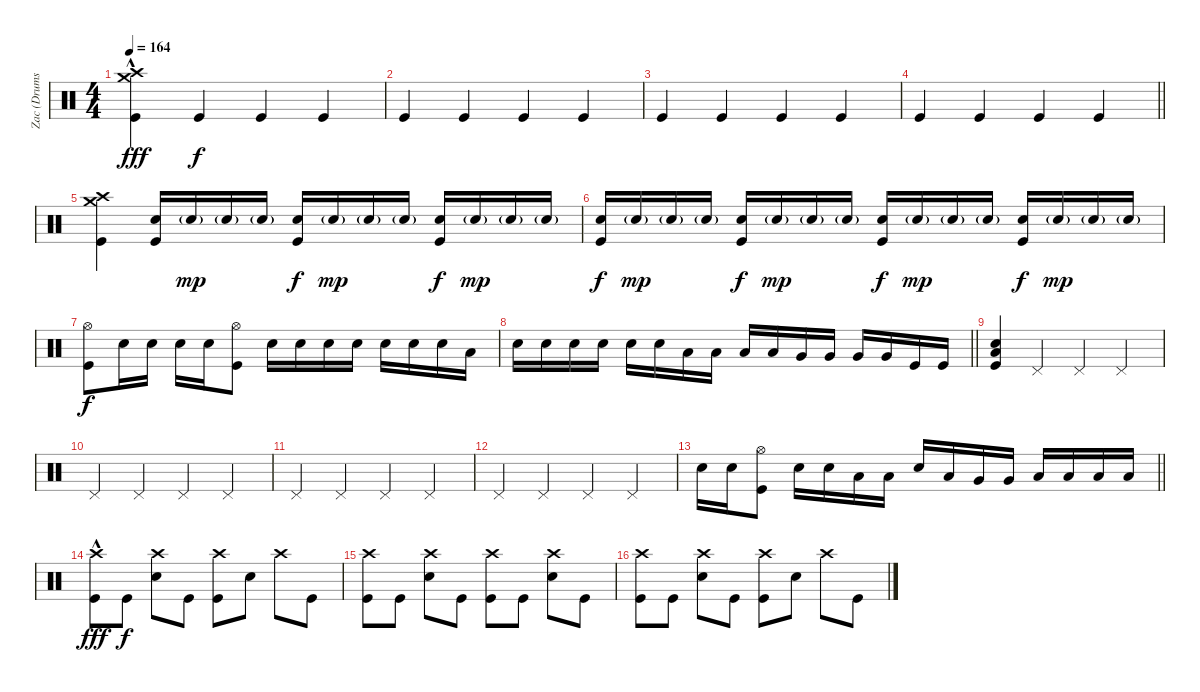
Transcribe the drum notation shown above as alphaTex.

\track ("Zac (Drums)" "Zac (Drums") {instrument percussion}
\staff {score}
\articulation defaults
\ts (4 4)
\tempo 164
\clef neutral
\ks c
("Crash high (hit)"{hac} "Crash medium (hit)" "Kick (hit)").4{dy fff} "Kick (hit)".4{dy f} "Kick (hit)".4 "Kick (hit)".4 |
"Kick (hit)".4 "Kick (hit)".4 "Kick (hit)".4 "Kick (hit)".4 |
"Kick (hit)".4 "Kick (hit)".4 "Kick (hit)".4 "Kick (hit)".4 |
\barLineRight lightlight "Kick (hit)".4 "Kick (hit)".4 "Kick (hit)".4 "Kick (hit)".4
|
("Crash high (hit)" "Crash medium (hit)" "Kick (hit)").4 ("Electric Snare (hit)" "Kick (hit)").16 "Electric Snare (hit)"{g}.16{dy mp} "Electric Snare (hit)"{g}.16 "Electric Snare (hit)"{g}.16 ("Electric Snare (hit)" "Kick (hit)").16{dy f} "Electric Snare (hit)"{g}.16{dy mp} "Electric Snare (hit)"{g}.16 "Electric Snare (hit)"{g}.16 ("Electric Snare (hit)" "Kick (hit)").16{dy f} "Electric Snare (hit)"{g}.16{dy mp} "Electric Snare (hit)"{g}.16 "Electric Snare (hit)"{g}.16 |
("Electric Snare (hit)" "Kick (hit)").16{dy f} "Electric Snare (hit)"{g}.16{dy mp} "Electric Snare (hit)"{g}.16 "Electric Snare (hit)"{g}.16 ("Electric Snare (hit)" "Kick (hit)").16{dy f} "Electric Snare (hit)"{g}.16{dy mp} "Electric Snare (hit)"{g}.16 "Electric Snare (hit)"{g}.16 ("Electric Snare (hit)" "Kick (hit)").16{dy f} "Electric Snare (hit)"{g}.16{dy mp} "Electric Snare (hit)"{g}.16 "Electric Snare (hit)"{g}.16 ("Electric Snare (hit)" "Kick (hit)").16{dy f} "Electric Snare (hit)"{g}.16{dy mp} "Electric Snare (hit)"{g}.16 "Electric Snare (hit)"{g}.16 |
("Hi-Hat (open)" "Kick (hit)").8{dy f} "Electric Snare (hit)".16 "Electric Snare (hit)".16 "Electric Snare (hit)".16 "Electric Snare (hit)".16 ("Hi-Hat (open)" "Kick (hit)").8 "Electric Snare (hit)".16 "Electric Snare (hit)".16 "Electric Snare (hit)".16 "Electric Snare (hit)".16 "Electric Snare (hit)".16 "Electric Snare (hit)".16 "Electric Snare (hit)".16 "Low Tom (hit)".16 |
\barLineRight lightlight "Electric Snare (hit)".16 "Electric Snare (hit)".16 "Electric Snare (hit)".16 "Electric Snare (hit)".16 "Electric Snare (hit)".16 "Electric Snare (hit)".16 "Low Tom (hit)".16 "Low Tom (hit)".16 "Low Tom (hit)".16 "Low Tom (hit)".16 "Very Low Tom (hit)".16 "Very Low Tom (hit)".16 "Very Low Tom (hit)".16 "Very Low Tom (hit)".16 "Kick (hit)".16 "Kick (hit)".16
|
("Electric Snare (hit)" "Low Floor Tom (hit)" "Kick (hit)").4 "Pedal Hi-Hat (hit)".4 "Pedal Hi-Hat (hit)".4 "Pedal Hi-Hat (hit)".4 |
"Pedal Hi-Hat (hit)".4 "Pedal Hi-Hat (hit)".4 "Pedal Hi-Hat (hit)".4 "Pedal Hi-Hat (hit)".4 |
"Pedal Hi-Hat (hit)".4 "Pedal Hi-Hat (hit)".4 "Pedal Hi-Hat (hit)".4 "Pedal Hi-Hat (hit)".4 |
"Pedal Hi-Hat (hit)".4 "Pedal Hi-Hat (hit)".4 "Pedal Hi-Hat (hit)".4 "Pedal Hi-Hat (hit)".4 |
\barLineRight lightlight "Electric Snare (hit)".16 "Electric Snare (hit)".16
("Hi-Hat (open)" "Kick (hit)").8 "Electric Snare (hit)".16 "Electric Snare (hit)".16 "Low Tom (hit)".16 "Low Tom (hit)".16 "Electric Snare (hit)".16 "Low Tom (hit)".16 "Very Low Tom (hit)".16 "Very Low Tom (hit)".16 "Low Floor Tom (hit)".16 "Low Floor Tom (hit)".16 "Low Floor Tom (hit)".16 "Low Floor Tom (hit)".16 |
("Crash high (hit)"{hac} "Kick (hit)").8{dy fff} "Kick (hit)".8{dy f} ("Crash high (hit)" "Electric Snare (hit)").8 "Kick (hit)".8 ("Crash high (hit)" "Kick (hit)").8 "Electric Snare (hit)".8 "Crash high (hit)".8 "Kick (hit)".8 |
("Crash high (hit)" "Kick (hit)").8 "Kick (hit)".8 ("Crash high (hit)" "Electric Snare (hit)").8 "Kick (hit)".8 ("Crash high (hit)" "Kick (hit)").8 "Kick (hit)".8 ("Crash high (hit)" "Electric Snare (hit)").8 "Kick (hit)".8 |
("Crash high (hit)" "Kick (hit)").8 "Kick (hit)".8 ("Crash high (hit)" "Electric Snare (hit)").8 "Kick (hit)".8 ("Crash high (hit)" "Kick (hit)").8 "Electric Snare (hit)".8 "Crash high (hit)".8 "Kick (hit)".8
